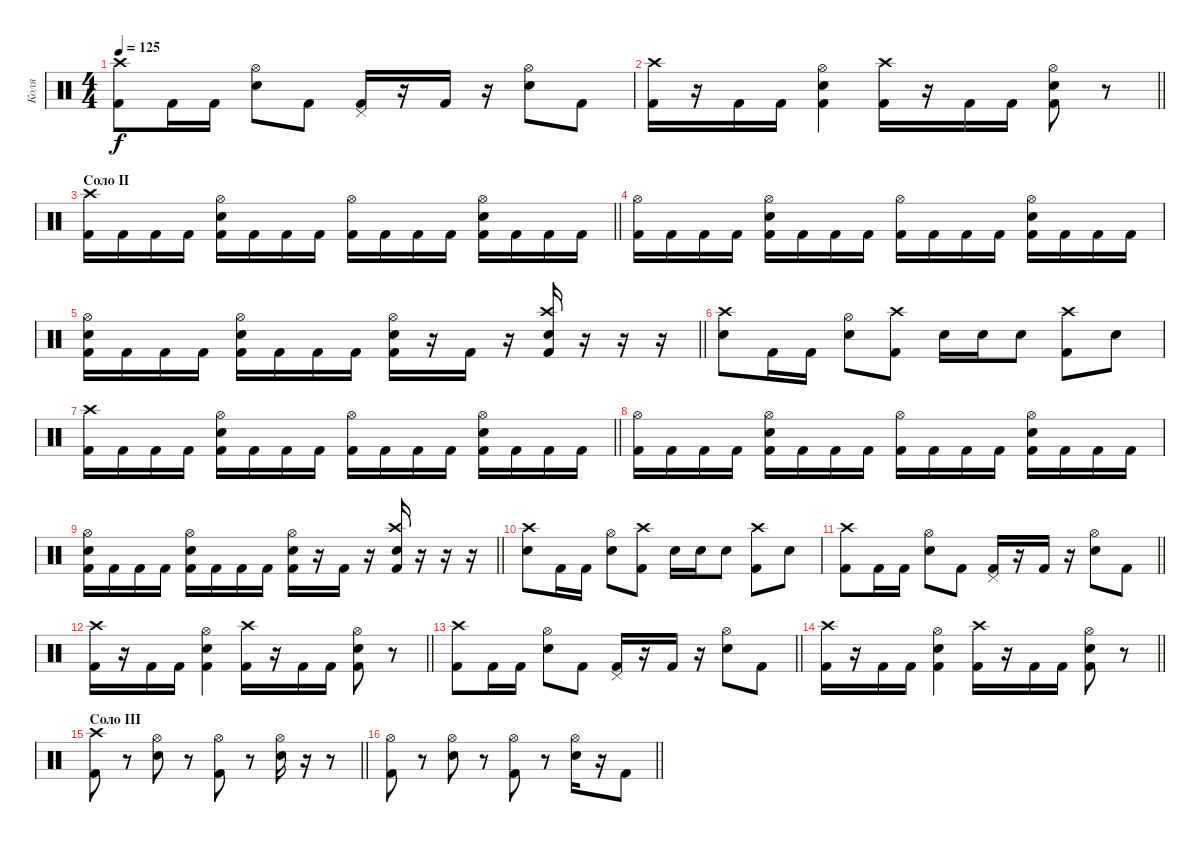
\track ("Коля" "Коля") {instrument percussion}
\staff {score}
\articulation defaults
\ts (4 4)
\tempo 125
\clef neutral
\ks c
("Kick (hit) 2" "Crash high (hit)").8{dy f} "Kick (hit) 2".16 "Kick (hit) 2".16 ("Electric Snare (hit)" "Hi-Hat (open)").8 "Kick (hit) 2".8 ("Kick (hit) 2" "Pedal Hi-Hat (hit)").16 r.16 "Kick (hit) 2".16 r.16 ("Electric Snare (hit)" "Hi-Hat (open)").8 "Kick (hit) 2".8 |
\barLineRight lightlight
("Kick (hit) 2" "Crash high (hit)").16 r.16 "Kick (hit) 2".16 "Kick (hit) 2".16 ("Kick (hit) 2" "Electric Snare (hit)" "Hi-Hat (open)").4 ("Kick (hit) 2" "Crash high (hit)").16 r.16 "Kick (hit) 2".16 "Kick (hit) 2".16 ("Kick (hit) 2" "Electric Snare (hit)" "Hi-Hat (open)").8 r.8 |
\section ("" "Соло II")
\barLineRight lightlight
("Kick (hit) 2" "Crash high (hit)").16 "Kick (hit) 2".16 "Kick (hit) 2".16 "Kick (hit) 2".16 ("Kick (hit) 2" "Electric Snare (hit)" "Hi-Hat (open)").16 "Kick (hit) 2".16 "Kick (hit) 2".16 "Kick (hit) 2".16 ("Kick (hit) 2" "Hi-Hat (open)").16 "Kick (hit) 2".16 "Kick (hit) 2".16 "Kick (hit) 2".16 ("Kick (hit) 2" "Electric Snare (hit)" "Hi-Hat (open)").16 "Kick (hit) 2".16 "Kick (hit) 2".16 "Kick (hit) 2".16 |
("Kick (hit) 2" "Hi-Hat (open)").16 "Kick (hit) 2".16 "Kick (hit) 2".16 "Kick (hit) 2".16 ("Kick (hit) 2" "Electric Snare (hit)" "Hi-Hat (open)").16 "Kick (hit) 2".16 "Kick (hit) 2".16 "Kick (hit) 2".16 ("Kick (hit) 2" "Hi-Hat (open)").16 "Kick (hit) 2".16 "Kick (hit) 2".16 "Kick (hit) 2".16 ("Kick (hit) 2" "Electric Snare (hit)" "Hi-Hat (open)").16 "Kick (hit) 2".16 "Kick (hit) 2".16 "Kick (hit) 2".16 |
\barLineRight lightlight
("Kick (hit) 2" "Electric Snare (hit)" "Hi-Hat (open)").16 "Kick (hit) 2".16 "Kick (hit) 2".16 "Kick (hit) 2".16 ("Kick (hit) 2" "Electric Snare (hit)" "Hi-Hat (open)").16 "Kick (hit) 2".16 "Kick (hit) 2".16 "Kick (hit) 2".16 ("Kick (hit) 2" "Electric Snare (hit)" "Hi-Hat (open)").16 r.16 "Kick (hit) 2".16 r.16 ("Kick (hit) 2" "Electric Snare (hit)" "Crash high (hit)").16 r.16 r.16 r.16 |
("Electric Snare (hit)" "Crash high (hit)").8 "Kick (hit) 2".16 "Kick (hit) 2".16 ("Electric Snare (hit)" "Hi-Hat (open)").8 ("Kick (hit) 2" "Crash high (hit)").8 "Electric Snare (hit)".16 "Electric Snare (hit)".16 "Electric Snare (hit)".8 ("Kick (hit) 2" "Crash high (hit)").8 "Electric Snare (hit)".8 |
\barLineRight lightlight
("Kick (hit) 2" "Crash high (hit)").16 "Kick (hit) 2".16 "Kick (hit) 2".16 "Kick (hit) 2".16 ("Kick (hit) 2" "Electric Snare (hit)" "Hi-Hat (open)").16 "Kick (hit) 2".16 "Kick (hit) 2".16 "Kick (hit) 2".16 ("Kick (hit) 2" "Hi-Hat (open)").16 "Kick (hit) 2".16 "Kick (hit) 2".16 "Kick (hit) 2".16 ("Kick (hit) 2" "Electric Snare (hit)" "Hi-Hat (open)").16 "Kick (hit) 2".16 "Kick (hit) 2".16 "Kick (hit) 2".16 |
("Kick (hit) 2" "Hi-Hat (open)").16 "Kick (hit) 2".16 "Kick (hit) 2".16 "Kick (hit) 2".16 ("Kick (hit) 2" "Electric Snare (hit)" "Hi-Hat (open)").16 "Kick (hit) 2".16 "Kick (hit) 2".16 "Kick (hit) 2".16 ("Kick (hit) 2" "Hi-Hat (open)").16 "Kick (hit) 2".16 "Kick (hit) 2".16 "Kick (hit) 2".16 ("Kick (hit) 2" "Electric Snare (hit)" "Hi-Hat (open)").16 "Kick (hit) 2".16 "Kick (hit) 2".16 "Kick (hit) 2".16 |
\barLineRight lightlight
("Kick (hit) 2" "Electric Snare (hit)" "Hi-Hat (open)").16 "Kick (hit) 2".16 "Kick (hit) 2".16 "Kick (hit) 2".16 ("Kick (hit) 2" "Electric Snare (hit)" "Hi-Hat (open)").16 "Kick (hit) 2".16 "Kick (hit) 2".16 "Kick (hit) 2".16 ("Kick (hit) 2" "Electric Snare (hit)" "Hi-Hat (open)").16 r.16 "Kick (hit) 2".16 r.16 ("Kick (hit) 2" "Electric Snare (hit)" "Crash high (hit)").16 r.16 r.16 r.16 |
("Electric Snare (hit)" "Crash high (hit)").8 "Kick (hit) 2".16 "Kick (hit) 2".16 ("Electric Snare (hit)" "Hi-Hat (open)").8 ("Kick (hit) 2" "Crash high (hit)").8 "Electric Snare (hit)".16 "Electric Snare (hit)".16 "Electric Snare (hit)".8 ("Kick (hit) 2" "Crash high (hit)").8 "Electric Snare (hit)".8 |
\barLineRight lightlight
("Kick (hit) 2" "Crash high (hit)").8 "Kick (hit) 2".16 "Kick (hit) 2".16 ("Electric Snare (hit)" "Hi-Hat (open)").8 "Kick (hit) 2".8 ("Kick (hit) 2" "Pedal Hi-Hat (hit)").16 r.16 "Kick (hit) 2".16 r.16 ("Electric Snare (hit)" "Hi-Hat (open)").8 "Kick (hit) 2".8 |
\barLineRight lightlight
("Kick (hit) 2" "Crash high (hit)").16 r.16 "Kick (hit) 2".16 "Kick (hit) 2".16 ("Kick (hit) 2" "Electric Snare (hit)" "Hi-Hat (open)").4 ("Kick (hit) 2" "Crash high (hit)").16 r.16 "Kick (hit) 2".16 "Kick (hit) 2".16 ("Kick (hit) 2" "Electric Snare (hit)" "Hi-Hat (open)").8 r.8 |
\barLineRight lightlight
("Kick (hit) 2" "Crash high (hit)").8 "Kick (hit) 2".16 "Kick (hit) 2".16 ("Electric Snare (hit)" "Hi-Hat (open)").8 "Kick (hit) 2".8 ("Kick (hit) 2" "Pedal Hi-Hat (hit)").16 r.16 "Kick (hit) 2".16 r.16 ("Electric Snare (hit)" "Hi-Hat (open)").8 "Kick (hit) 2".8 |
\barLineRight lightlight
("Kick (hit) 2" "Crash high (hit)").16 r.16 "Kick (hit) 2".16 "Kick (hit) 2".16 ("Kick (hit) 2" "Electric Snare (hit)" "Hi-Hat (open)").4 ("Kick (hit) 2" "Crash high (hit)").16 r.16 "Kick (hit) 2".16 "Kick (hit) 2".16 ("Kick (hit) 2" "Electric Snare (hit)" "Hi-Hat (open)").8 r.8 |
\section ("" "Соло III")
\barLineRight lightlight
("Kick (hit) 2" "Crash high (hit)").8 r.8 ("Electric Snare (hit)" "Hi-Hat (open)").8 r.8 ("Kick (hit) 2" "Hi-Hat (open)").8 r.8 ("Electric Snare (hit)" "Hi-Hat (open)").16 r.16 r.8 |
\barLineRight lightlight
("Kick (hit) 2" "Hi-Hat (open)").8 r.8 ("Electric Snare (hit)" "Hi-Hat (open)").8 r.8 ("Kick (hit) 2" "Hi-Hat (open)").8 r.8 ("Electric Snare (hit)" "Hi-Hat (open)").16 r.16 "Kick (hit) 2".8
